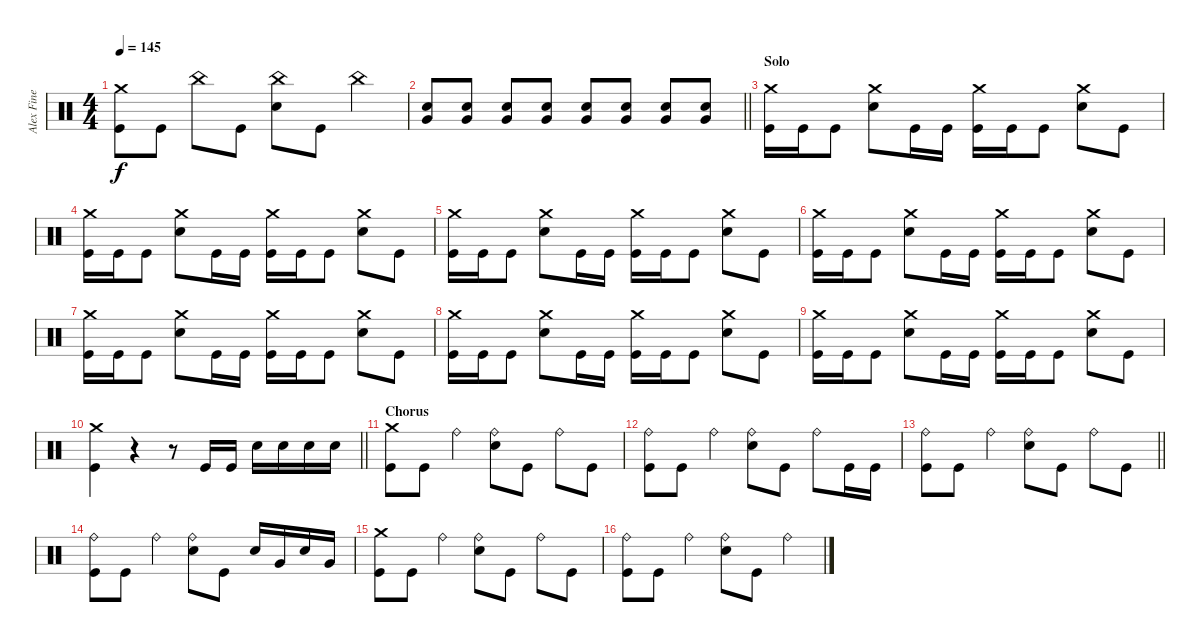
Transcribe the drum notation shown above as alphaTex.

\track ("Alex Fine (Drums)" "Alex Fine ") {instrument percussion}
\staff {score}
\articulation defaults
\ts (4 4)
\tempo 145
\clef neutral
\ks c
("Crash medium (hit)" "Kick (hit)").8{dy f} "Kick (hit)".8 "China (hit)".8 "Kick (hit)".8 ("China (hit)" "Snare (hit) 2").8 "Kick (hit)".8 "China (hit)".4 |
\barLineRight lightlight
("Snare (hit) 2" "Very Low Tom (hit)").8 ("Snare (hit) 2" "Very Low Tom (hit)").8 ("Snare (hit) 2" "Very Low Tom (hit)").8 ("Snare (hit) 2" "Very Low Tom (hit)").8 ("Snare (hit) 2" "Very Low Tom (hit)").8 ("Snare (hit) 2" "Very Low Tom (hit)").8 ("Snare (hit) 2" "Very Low Tom (hit)").8 ("Snare (hit) 2" "Very Low Tom (hit)").8 |
\section ("" "Solo")
("Crash medium (hit)" "Kick (hit)").16 "Kick (hit)".16 "Kick (hit)".8 ("Crash medium (hit)" "Snare (hit) 2").8 "Kick (hit)".16 "Kick (hit)".16 ("Crash medium (hit)" "Kick (hit)").16 "Kick (hit)".16 "Kick (hit)".8 ("Crash medium (hit)" "Snare (hit) 2").8 "Kick (hit)".8 |
("Crash medium (hit)" "Kick (hit)").16 "Kick (hit)".16 "Kick (hit)".8 ("Crash medium (hit)" "Snare (hit) 2").8 "Kick (hit)".16 "Kick (hit)".16 ("Crash medium (hit)" "Kick (hit)").16 "Kick (hit)".16 "Kick (hit)".8 ("Crash medium (hit)" "Snare (hit) 2").8 "Kick (hit)".8 |
("Crash medium (hit)" "Kick (hit)").16 "Kick (hit)".16 "Kick (hit)".8 ("Crash medium (hit)" "Snare (hit) 2").8 "Kick (hit)".16 "Kick (hit)".16 ("Crash medium (hit)" "Kick (hit)").16 "Kick (hit)".16 "Kick (hit)".8 ("Crash medium (hit)" "Snare (hit) 2").8 "Kick (hit)".8 |
("Crash medium (hit)" "Kick (hit)").16 "Kick (hit)".16 "Kick (hit)".8 ("Crash medium (hit)" "Snare (hit) 2").8 "Kick (hit)".16 "Kick (hit)".16 ("Crash medium (hit)" "Kick (hit)").16 "Kick (hit)".16 "Kick (hit)".8 ("Crash medium (hit)" "Snare (hit) 2").8 "Kick (hit)".8 |
("Crash medium (hit)" "Kick (hit)").16 "Kick (hit)".16 "Kick (hit)".8 ("Crash medium (hit)" "Snare (hit) 2").8 "Kick (hit)".16 "Kick (hit)".16 ("Crash medium (hit)" "Kick (hit)").16 "Kick (hit)".16 "Kick (hit)".8 ("Crash medium (hit)" "Snare (hit) 2").8 "Kick (hit)".8 |
("Crash medium (hit)" "Kick (hit)").16 "Kick (hit)".16 "Kick (hit)".8 ("Crash medium (hit)" "Snare (hit) 2").8 "Kick (hit)".16 "Kick (hit)".16 ("Crash medium (hit)" "Kick (hit)").16 "Kick (hit)".16 "Kick (hit)".8 ("Crash medium (hit)" "Snare (hit) 2").8 "Kick (hit)".8 |
("Crash medium (hit)" "Kick (hit)").16 "Kick (hit)".16 "Kick (hit)".8 ("Crash medium (hit)" "Snare (hit) 2").8 "Kick (hit)".16 "Kick (hit)".16 ("Crash medium (hit)" "Kick (hit)").16 "Kick (hit)".16 "Kick (hit)".8 ("Crash medium (hit)" "Snare (hit) 2").8 "Kick (hit)".8 |
\barLineRight lightlight
("Crash medium (hit)" "Kick (hit)").4 r.4 r.8 "Kick (hit)".16 "Kick (hit)".16 "Snare (hit) 2".16 "Snare (hit) 2".16 "Snare (hit) 2".16 "Snare (hit) 2".16 |
\section ("" "Chorus")
("Crash medium (hit)" "Kick (hit)").8 "Kick (hit)".8 "Ride (bell)".4 ("Ride (bell)" "Snare (hit) 2").8 "Kick (hit)".8 "Ride (bell)".8 "Kick (hit)".8 |
("Ride (bell)" "Kick (hit)").8 "Kick (hit)".8 "Ride (bell)".4 ("Ride (bell)" "Snare (hit) 2").8 "Kick (hit)".8 "Ride (bell)".8 "Kick (hit)".16 "Kick (hit)".16 |
\barLineRight lightlight
("Ride (bell)" "Kick (hit)").8 "Kick (hit)".8 "Ride (bell)".4 ("Ride (bell)" "Snare (hit) 2").8 "Kick (hit)".8 "Ride (bell)".8 "Kick (hit)".8 |
("Ride (bell)" "Kick (hit)").8 "Kick (hit)".8 "Ride (bell)".4 ("Ride (bell)" "Snare (hit) 2").8 "Kick (hit)".8 "Snare (hit) 2".16 "Very Low Tom (hit)".16 "Snare (hit) 2".16 "Very Low Tom (hit)".16 |
("Crash medium (hit)" "Kick (hit)").8 "Kick (hit)".8 "Ride (bell)".4 ("Ride (bell)" "Snare (hit) 2").8 "Kick (hit)".8 "Ride (bell)".8 "Kick (hit)".8 |
("Ride (bell)" "Kick (hit)").8 "Kick (hit)".8 "Ride (bell)".4 ("Ride (bell)" "Snare (hit) 2").8 "Kick (hit)".8 "Ride (bell)".4
